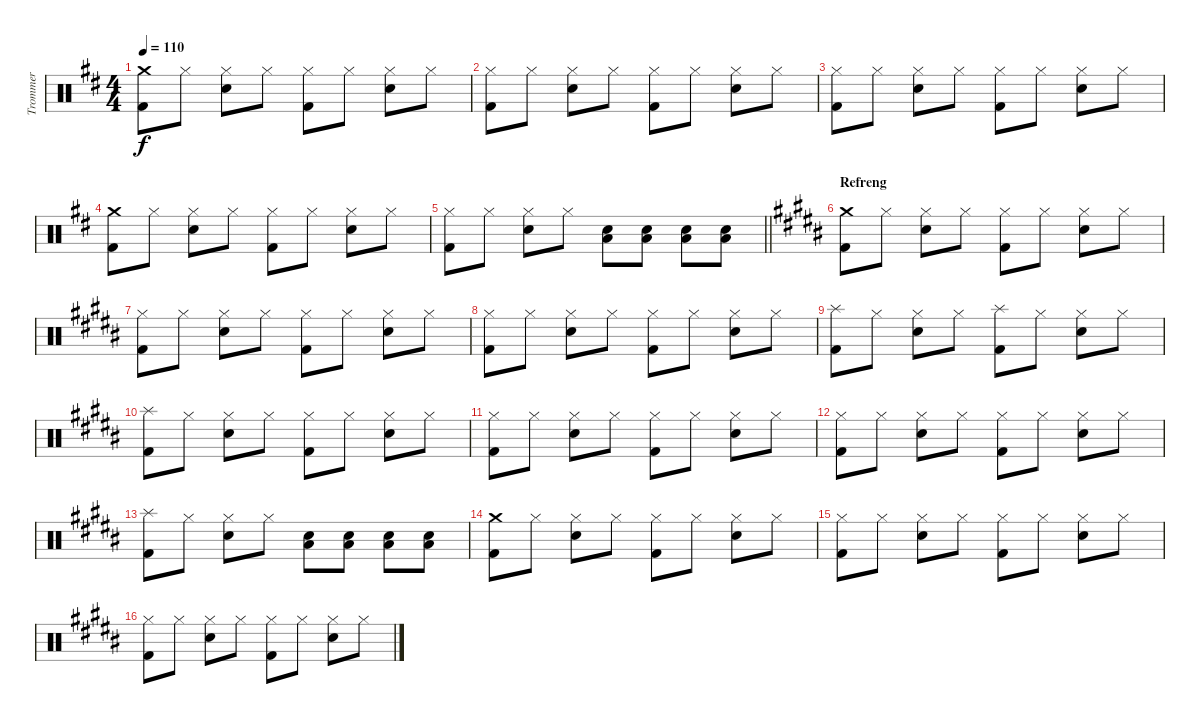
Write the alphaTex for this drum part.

\track ("Trommer" "Trommer") {instrument percussion}
\staff {score}
\articulation defaults
\ts (4 4)
\tempo 110
\clef neutral
\ks d
("Crash medium (hit)" "Kick (hit) 2").8{dy f} "Hi-Hat (closed)".8 ("Hi-Hat (closed)" "Electric Snare (hit)").8 "Hi-Hat (closed)".8 ("Hi-Hat (closed)" "Kick (hit) 2").8 "Hi-Hat (closed)".8 ("Hi-Hat (closed)" "Electric Snare (hit)").8 "Hi-Hat (closed)".8 |
("Hi-Hat (closed)" "Kick (hit) 2").8 "Hi-Hat (closed)".8 ("Hi-Hat (closed)" "Electric Snare (hit)").8 "Hi-Hat (closed)".8 ("Hi-Hat (closed)" "Kick (hit) 2").8 "Hi-Hat (closed)".8 ("Hi-Hat (closed)" "Electric Snare (hit)").8 "Hi-Hat (closed)".8 |
("Hi-Hat (closed)" "Kick (hit) 2").8 "Hi-Hat (closed)".8 ("Hi-Hat (closed)" "Electric Snare (hit)").8 "Hi-Hat (closed)".8 ("Hi-Hat (closed)" "Kick (hit) 2").8 "Hi-Hat (closed)".8 ("Hi-Hat (closed)" "Electric Snare (hit)").8 "Hi-Hat (closed)".8 |
("Crash medium (hit)" "Kick (hit) 2").8 "Hi-Hat (closed)".8 ("Hi-Hat (closed)" "Electric Snare (hit)").8 "Hi-Hat (closed)".8 ("Hi-Hat (closed)" "Kick (hit) 2").8 "Hi-Hat (closed)".8 ("Hi-Hat (closed)" "Electric Snare (hit)").8 "Hi-Hat (closed)".8 |
\barLineRight lightlight
("Hi-Hat (closed)" "Kick (hit) 2").8 "Hi-Hat (closed)".8 ("Hi-Hat (closed)" "Electric Snare (hit)").8 "Hi-Hat (closed)".8 ("Electric Snare (hit)" "Low Tom (hit)").8 ("Electric Snare (hit)" "Low Tom (hit)").8 ("Electric Snare (hit)" "Low Tom (hit)").8 ("Electric Snare (hit)" "Low Tom (hit)").8 |
\section ("" "Refreng")
\ks b
("Crash medium (hit)" "Kick (hit) 2").8 "Hi-Hat (closed)".8 ("Hi-Hat (closed)" "Electric Snare (hit)").8 "Hi-Hat (closed)".8 ("Hi-Hat (closed)" "Kick (hit) 2").8 "Hi-Hat (closed)".8 ("Hi-Hat (closed)" "Electric Snare (hit)").8 "Hi-Hat (closed)".8 |
("Hi-Hat (closed)" "Kick (hit) 2").8 "Hi-Hat (closed)".8 ("Hi-Hat (closed)" "Electric Snare (hit)").8 "Hi-Hat (closed)".8 ("Hi-Hat (closed)" "Kick (hit) 2").8 "Hi-Hat (closed)".8 ("Hi-Hat (closed)" "Electric Snare (hit)").8 "Hi-Hat (closed)".8 |
("Hi-Hat (closed)" "Kick (hit) 2").8 "Hi-Hat (closed)".8 ("Hi-Hat (closed)" "Electric Snare (hit)").8 "Hi-Hat (closed)".8 ("Hi-Hat (closed)" "Kick (hit) 2").8 "Hi-Hat (closed)".8 ("Hi-Hat (closed)" "Electric Snare (hit)").8 "Hi-Hat (closed)".8 |
("Splash (hit)" "Kick (hit) 2").8 "Hi-Hat (closed)".8 ("Hi-Hat (closed)" "Electric Snare (hit)").8 "Hi-Hat (closed)".8 ("Splash (hit)" "Kick (hit) 2").8 "Hi-Hat (closed)".8 ("Hi-Hat (closed)" "Electric Snare (hit)").8 "Hi-Hat (closed)".8 |
("Splash (hit)" "Kick (hit) 2").8 "Hi-Hat (closed)".8 ("Hi-Hat (closed)" "Electric Snare (hit)").8 "Hi-Hat (closed)".8 ("Hi-Hat (closed)" "Kick (hit) 2").8 "Hi-Hat (closed)".8 ("Hi-Hat (closed)" "Electric Snare (hit)").8 "Hi-Hat (closed)".8 |
("Hi-Hat (closed)" "Kick (hit) 2").8 "Hi-Hat (closed)".8 ("Hi-Hat (closed)" "Electric Snare (hit)").8 "Hi-Hat (closed)".8 ("Hi-Hat (closed)" "Kick (hit) 2").8 "Hi-Hat (closed)".8 ("Hi-Hat (closed)" "Electric Snare (hit)").8 "Hi-Hat (closed)".8 |
("Hi-Hat (closed)" "Kick (hit) 2").8 "Hi-Hat (closed)".8 ("Hi-Hat (closed)" "Electric Snare (hit)").8 "Hi-Hat (closed)".8 ("Hi-Hat (closed)" "Kick (hit) 2").8 "Hi-Hat (closed)".8 ("Hi-Hat (closed)" "Electric Snare (hit)").8 "Hi-Hat (closed)".8 |
("Splash (hit)" "Kick (hit) 2").8 "Hi-Hat (closed)".8 ("Hi-Hat (closed)" "Electric Snare (hit)").8 "Hi-Hat (closed)".8 ("Electric Snare (hit)" "Low Tom (hit)").8 ("Electric Snare (hit)" "Low Tom (hit)").8 ("Electric Snare (hit)" "Low Tom (hit)").8 ("Electric Snare (hit)" "Low Tom (hit)").8 |
("Crash medium (hit)" "Kick (hit) 2").8 "Hi-Hat (closed)".8 ("Hi-Hat (closed)" "Electric Snare (hit)").8 "Hi-Hat (closed)".8 ("Hi-Hat (closed)" "Kick (hit) 2").8 "Hi-Hat (closed)".8 ("Hi-Hat (closed)" "Electric Snare (hit)").8 "Hi-Hat (closed)".8 |
("Hi-Hat (closed)" "Kick (hit) 2").8 "Hi-Hat (closed)".8 ("Hi-Hat (closed)" "Electric Snare (hit)").8 "Hi-Hat (closed)".8 ("Hi-Hat (closed)" "Kick (hit) 2").8 "Hi-Hat (closed)".8 ("Hi-Hat (closed)" "Electric Snare (hit)").8 "Hi-Hat (closed)".8 |
("Hi-Hat (closed)" "Kick (hit) 2").8 "Hi-Hat (closed)".8 ("Hi-Hat (closed)" "Electric Snare (hit)").8 "Hi-Hat (closed)".8 ("Hi-Hat (closed)" "Kick (hit) 2").8 "Hi-Hat (closed)".8 ("Hi-Hat (closed)" "Electric Snare (hit)").8 "Hi-Hat (closed)".8
